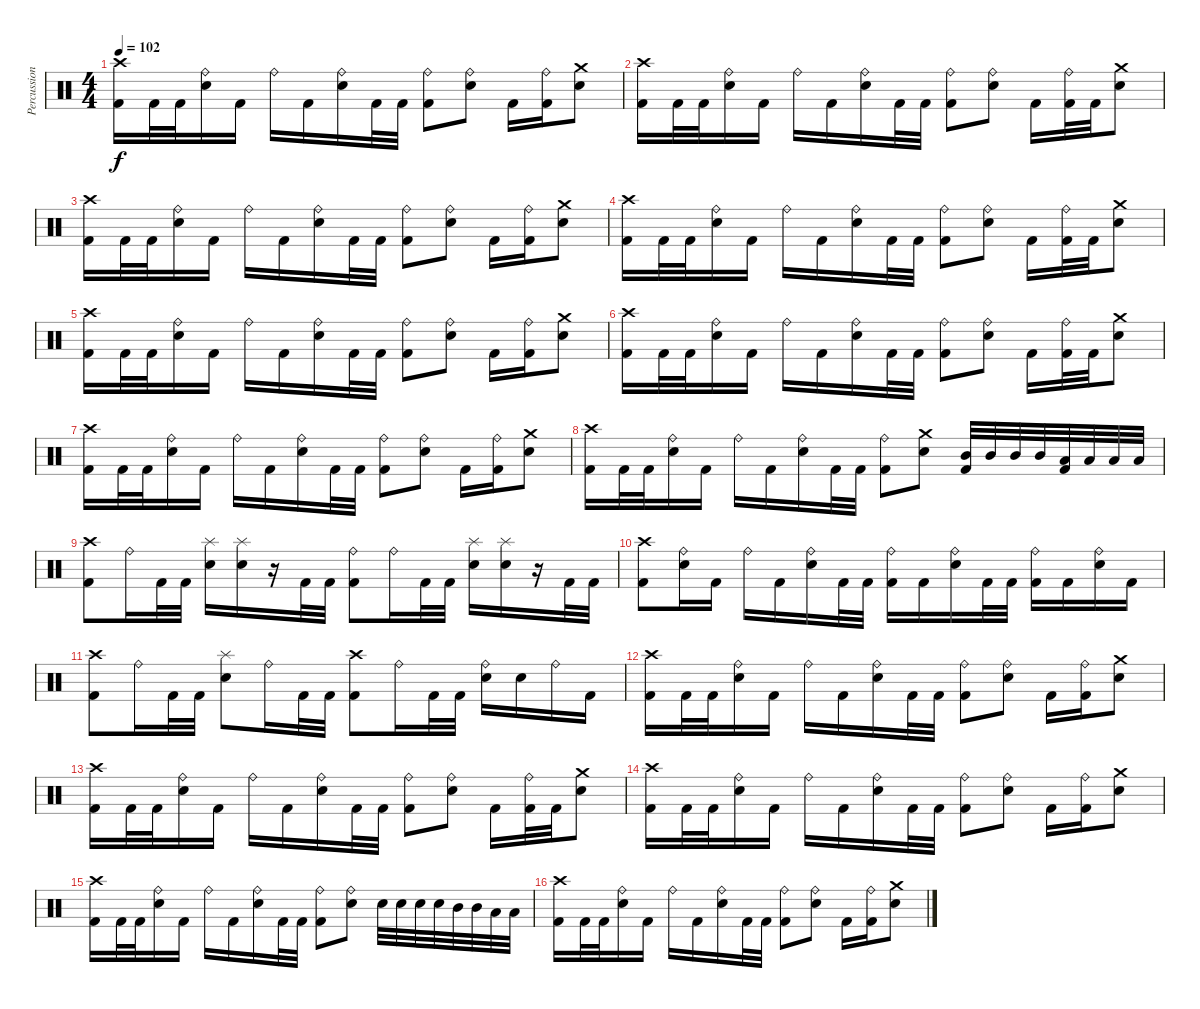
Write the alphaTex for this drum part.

\track ("Percussion" "Percussion") {solo instrument percussion}
\staff {score}
\articulation defaults
\ts (4 4)
\tempo 102
\clef neutral
\ks c
("Crash high (hit)" "Kick (hit) 2").16{dy f} "Kick (hit) 2".32 "Kick (hit) 2".32 ("Ride (bell)" "Snare (hit) 2").16 "Kick (hit) 2".16 "Ride (bell)".16 "Kick (hit) 2".16 ("Ride (bell)" "Snare (hit) 2").16 "Kick (hit) 2".32 "Kick (hit) 2".32 ("Ride (bell)" "Kick (hit) 2").8 ("Ride (bell)" "Snare (hit) 2").8 "Kick (hit) 2".16 ("Ride (bell)" "Kick (hit) 2").16 ("Crash medium (hit)" "Snare (hit) 2").8 |
("Crash high (hit)" "Kick (hit) 2").16 "Kick (hit) 2".32 "Kick (hit) 2".32 ("Ride (bell)" "Snare (hit) 2").16 "Kick (hit) 2".16 "Ride (bell)".16 "Kick (hit) 2".16 ("Ride (bell)" "Snare (hit) 2").16 "Kick (hit) 2".32 "Kick (hit) 2".32 ("Ride (bell)" "Kick (hit) 2").8 ("Ride (bell)" "Snare (hit) 2").8 "Kick (hit) 2".16 ("Ride (bell)" "Kick (hit) 2").32 "Kick (hit) 2".32 ("Crash medium (hit)" "Snare (hit) 2").8 |
("Crash high (hit)" "Kick (hit) 2").16 "Kick (hit) 2".32 "Kick (hit) 2".32 ("Ride (bell)" "Snare (hit) 2").16 "Kick (hit) 2".16 "Ride (bell)".16 "Kick (hit) 2".16 ("Ride (bell)" "Snare (hit) 2").16 "Kick (hit) 2".32 "Kick (hit) 2".32 ("Ride (bell)" "Kick (hit) 2").8 ("Ride (bell)" "Snare (hit) 2").8 "Kick (hit) 2".16 ("Ride (bell)" "Kick (hit) 2").16 ("Crash medium (hit)" "Snare (hit) 2").8 |
("Crash high (hit)" "Kick (hit) 2").16 "Kick (hit) 2".32 "Kick (hit) 2".32 ("Ride (bell)" "Snare (hit) 2").16 "Kick (hit) 2".16 "Ride (bell)".16 "Kick (hit) 2".16 ("Ride (bell)" "Snare (hit) 2").16 "Kick (hit) 2".32 "Kick (hit) 2".32 ("Ride (bell)" "Kick (hit) 2").8 ("Ride (bell)" "Snare (hit) 2").8 "Kick (hit) 2".16 ("Ride (bell)" "Kick (hit) 2").32 "Kick (hit) 2".32 ("Crash medium (hit)" "Snare (hit) 2").8 |
("Crash high (hit)" "Kick (hit) 2").16 "Kick (hit) 2".32 "Kick (hit) 2".32 ("Ride (bell)" "Snare (hit) 2").16 "Kick (hit) 2".16 "Ride (bell)".16 "Kick (hit) 2".16 ("Ride (bell)" "Snare (hit) 2").16 "Kick (hit) 2".32 "Kick (hit) 2".32 ("Ride (bell)" "Kick (hit) 2").8 ("Ride (bell)" "Snare (hit) 2").8 "Kick (hit) 2".16 ("Ride (bell)" "Kick (hit) 2").16 ("Crash medium (hit)" "Snare (hit) 2").8 |
("Crash high (hit)" "Kick (hit) 2").16 "Kick (hit) 2".32 "Kick (hit) 2".32 ("Ride (bell)" "Snare (hit) 2").16 "Kick (hit) 2".16 "Ride (bell)".16 "Kick (hit) 2".16 ("Ride (bell)" "Snare (hit) 2").16 "Kick (hit) 2".32 "Kick (hit) 2".32 ("Ride (bell)" "Kick (hit) 2").8 ("Ride (bell)" "Snare (hit) 2").8 "Kick (hit) 2".16 ("Ride (bell)" "Kick (hit) 2").32 "Kick (hit) 2".32 ("Crash medium (hit)" "Snare (hit) 2").8 |
("Crash high (hit)" "Kick (hit) 2").16 "Kick (hit) 2".32 "Kick (hit) 2".32 ("Ride (bell)" "Snare (hit) 2").16 "Kick (hit) 2".16 "Ride (bell)".16 "Kick (hit) 2".16 ("Ride (bell)" "Snare (hit) 2").16 "Kick (hit) 2".32 "Kick (hit) 2".32 ("Ride (bell)" "Kick (hit) 2").8 ("Ride (bell)" "Snare (hit) 2").8 "Kick (hit) 2".16 ("Ride (bell)" "Kick (hit) 2").16 ("Crash medium (hit)" "Snare (hit) 2").8 |
("Crash high (hit)" "Kick (hit) 2").16 "Kick (hit) 2".32 "Kick (hit) 2".32 ("Ride (bell)" "Snare (hit) 2").16 "Kick (hit) 2".16 "Ride (bell)".16 "Kick (hit) 2".16 ("Ride (bell)" "Snare (hit) 2").16 "Kick (hit) 2".32 "Kick (hit) 2".32 ("Ride (bell)" "Kick (hit) 2").8 ("Crash medium (hit)" "Snare (hit) 2").8 ("Mid Tom (hit)" "Kick (hit) 2").32 "Mid Tom (hit)".32 "Mid Tom (hit)".32 "Mid Tom (hit)".32 ("Low Tom (hit)" "Kick (hit) 2").32 "Low Tom (hit)".32 "Low Tom (hit)".32 "Low Tom (hit)".32 |
("Crash high (hit)" "Kick (hit) 2").8 "Ride (bell)".16 "Kick (hit) 2".32 "Kick (hit) 2".32 ("Splash (hit)" "Snare (hit) 2").16 ("Splash (hit)" "Snare (hit) 2").16 r.16 "Kick (hit) 2".32 "Kick (hit) 2".32 ("Ride (bell)" "Kick (hit) 2").8 "Ride (bell)".16 "Kick (hit) 2".32 "Kick (hit) 2".32 ("Splash (hit)" "Snare (hit) 2").16 ("Splash (hit)" "Snare (hit) 2").16 r.16 "Kick (hit) 2".32 "Kick (hit) 2".32 |
("Crash high (hit)" "Kick (hit) 2").8 ("Ride (bell)" "Snare (hit) 2").16 "Kick (hit) 2".16 "Ride (bell)".16 "Kick (hit) 2".16 ("Ride (bell)" "Snare (hit) 2").16 "Kick (hit) 2".32 "Kick (hit) 2".32 ("Ride (bell)" "Kick (hit) 2").16 "Kick (hit) 2".16 ("Ride (bell)" "Snare (hit) 2").16 "Kick (hit) 2".32 "Kick (hit) 2".32 ("Ride (bell)" "Kick (hit) 2").16 "Kick (hit) 2".16 ("Ride (bell)" "Snare (hit) 2").16 "Kick (hit) 2".16 |
("Crash high (hit)" "Kick (hit) 2").8 "Ride (bell)".16 "Kick (hit) 2".32 "Kick (hit) 2".32 ("Splash (hit)" "Snare (hit) 2").8 "Ride (bell)".16 "Kick (hit) 2".32 "Kick (hit) 2".32 ("Crash high (hit)" "Kick (hit) 2").8 "Ride (bell)".16 "Kick (hit) 2".32 "Kick (hit) 2".32 ("Ride (bell)" "Snare (hit) 2").16 "Snare (hit) 2".16 "Ride (bell)".16 "Kick (hit) 2".16 |
("Crash high (hit)" "Kick (hit) 2").16 "Kick (hit) 2".32 "Kick (hit) 2".32 ("Ride (bell)" "Snare (hit) 2").16 "Kick (hit) 2".16 "Ride (bell)".16 "Kick (hit) 2".16 ("Ride (bell)" "Snare (hit) 2").16 "Kick (hit) 2".32 "Kick (hit) 2".32 ("Ride (bell)" "Kick (hit) 2").8 ("Ride (bell)" "Snare (hit) 2").8 "Kick (hit) 2".16 ("Ride (bell)" "Kick (hit) 2").16 ("Crash medium (hit)" "Snare (hit) 2").8 |
("Crash high (hit)" "Kick (hit) 2").16 "Kick (hit) 2".32 "Kick (hit) 2".32 ("Ride (bell)" "Snare (hit) 2").16 "Kick (hit) 2".16 "Ride (bell)".16 "Kick (hit) 2".16 ("Ride (bell)" "Snare (hit) 2").16 "Kick (hit) 2".32 "Kick (hit) 2".32 ("Ride (bell)" "Kick (hit) 2").8 ("Ride (bell)" "Snare (hit) 2").8 "Kick (hit) 2".16 ("Ride (bell)" "Kick (hit) 2").32 "Kick (hit) 2".32 ("Crash medium (hit)" "Snare (hit) 2").8 |
("Crash high (hit)" "Kick (hit) 2").16 "Kick (hit) 2".32 "Kick (hit) 2".32 ("Ride (bell)" "Snare (hit) 2").16 "Kick (hit) 2".16 "Ride (bell)".16 "Kick (hit) 2".16 ("Ride (bell)" "Snare (hit) 2").16 "Kick (hit) 2".32 "Kick (hit) 2".32 ("Ride (bell)" "Kick (hit) 2").8 ("Ride (bell)" "Snare (hit) 2").8 "Kick (hit) 2".16 ("Ride (bell)" "Kick (hit) 2").16 ("Crash medium (hit)" "Snare (hit) 2").8 |
("Crash high (hit)" "Kick (hit) 2").16 "Kick (hit) 2".32 "Kick (hit) 2".32 ("Ride (bell)" "Snare (hit) 2").16 "Kick (hit) 2".16 "Ride (bell)".16 "Kick (hit) 2".16 ("Ride (bell)" "Snare (hit) 2").16 "Kick (hit) 2".32 "Kick (hit) 2".32 ("Ride (bell)" "Kick (hit) 2").8 ("Ride (bell)" "Snare (hit) 2").8 "Snare (hit) 2".32 "Snare (hit) 2".32 "Snare (hit) 2".32 "Snare (hit) 2".32 "Mid Tom (hit)".32 "Mid Tom (hit)".32 "Low Tom (hit)".32 "Low Tom (hit)".32 |
("Crash high (hit)" "Kick (hit) 2").16 "Kick (hit) 2".32 "Kick (hit) 2".32 ("Ride (bell)" "Snare (hit) 2").16 "Kick (hit) 2".16 "Ride (bell)".16 "Kick (hit) 2".16 ("Ride (bell)" "Snare (hit) 2").16 "Kick (hit) 2".32 "Kick (hit) 2".32 ("Ride (bell)" "Kick (hit) 2").8 ("Ride (bell)" "Snare (hit) 2").8 "Kick (hit) 2".16 ("Ride (bell)" "Kick (hit) 2").16 ("Crash medium (hit)" "Snare (hit) 2").8
